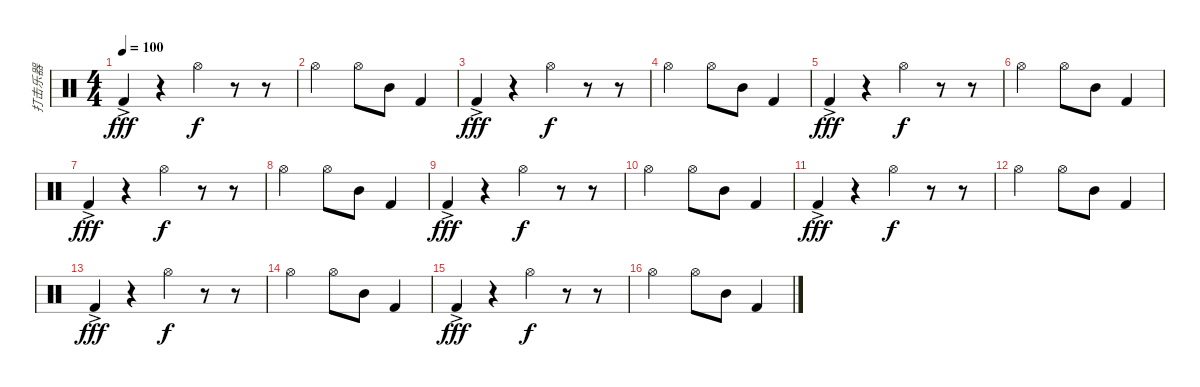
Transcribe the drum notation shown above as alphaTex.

\track ("打击乐器" "打击乐器") {instrument percussion}
\staff {score}
\articulation defaults
\ts (4 4)
\tempo 100
\clef neutral
\ks c "Kick (hit) 2"{ac}.4{dy fff}
r.4 "Hi-Hat (open)".4{dy f} r.8 r.8 |
"Hi-Hat (open)".2 "Hi-Hat (open)".8 "Mid Tom (hit)".8 "Kick (hit) 2".4 |
"Kick (hit) 2"{ac}.4{dy fff} r.4 "Hi-Hat (open)".4{dy f} r.8 r.8 |
"Hi-Hat (open)".2 "Hi-Hat (open)".8 "Mid Tom (hit)".8 "Kick (hit) 2".4 |
"Kick (hit) 2"{ac}.4{dy fff} r.4 "Hi-Hat (open)".4{dy f} r.8 r.8 |
"Hi-Hat (open)".2 "Hi-Hat (open)".8 "Mid Tom (hit)".8 "Kick (hit) 2".4 |
"Kick (hit) 2"{ac}.4{dy fff} r.4 "Hi-Hat (open)".4{dy f} r.8 r.8 |
"Hi-Hat (open)".2 "Hi-Hat (open)".8 "Mid Tom (hit)".8 "Kick (hit) 2".4 |
"Kick (hit) 2"{ac}.4{dy fff} r.4 "Hi-Hat (open)".4{dy f} r.8 r.8 |
"Hi-Hat (open)".2 "Hi-Hat (open)".8 "Mid Tom (hit)".8 "Kick (hit) 2".4 |
"Kick (hit) 2"{ac}.4{dy fff} r.4 "Hi-Hat (open)".4{dy f} r.8 r.8 |
"Hi-Hat (open)".2 "Hi-Hat (open)".8 "Mid Tom (hit)".8 "Kick (hit) 2".4 |
"Kick (hit) 2"{ac}.4{dy fff} r.4 "Hi-Hat (open)".4{dy f} r.8 r.8 |
"Hi-Hat (open)".2 "Hi-Hat (open)".8 "Mid Tom (hit)".8 "Kick (hit) 2".4 |
"Kick (hit) 2"{ac}.4{dy fff} r.4 "Hi-Hat (open)".4{dy f} r.8 r.8 |
"Hi-Hat (open)".2 "Hi-Hat (open)".8 "Mid Tom (hit)".8 "Kick (hit) 2".4
